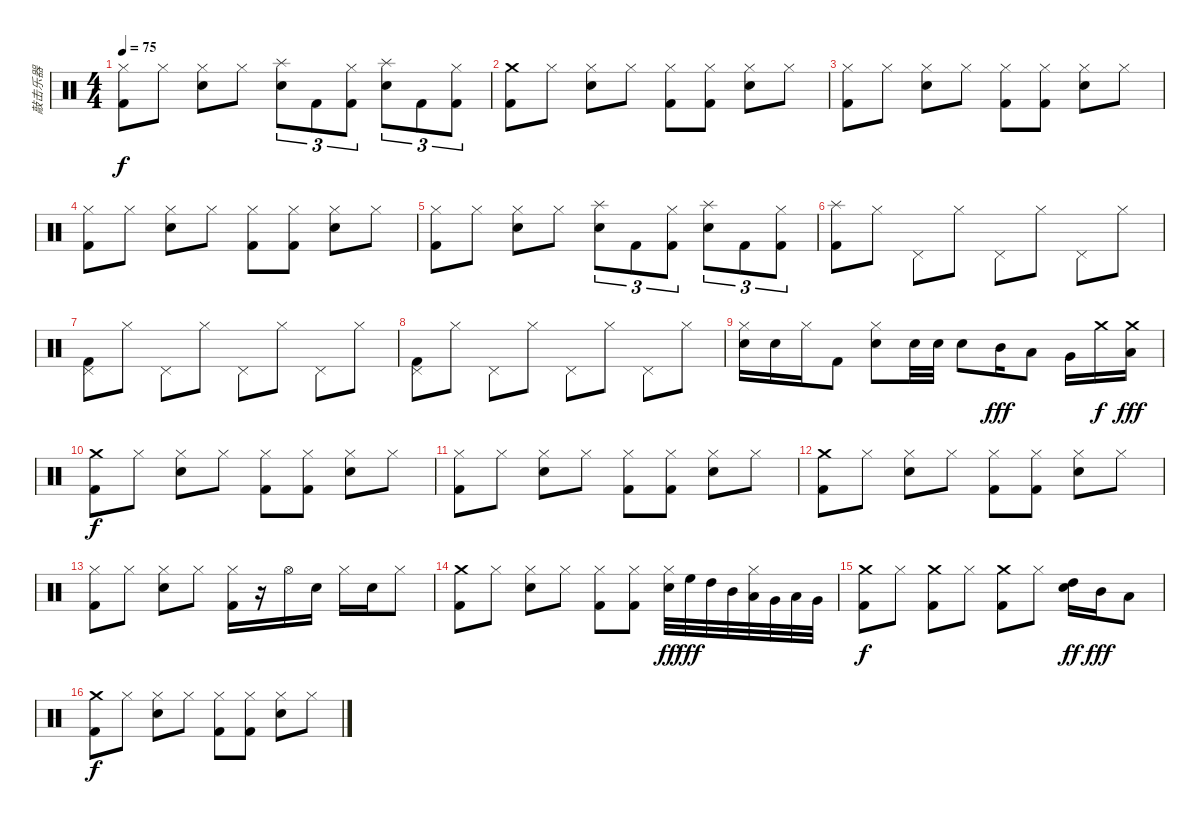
\track ("敲击乐器" "敲击乐器") {instrument percussion}
\staff {score}
\articulation defaults
\ts (4 4)
\tempo 75
\clef neutral
\ks c
("Hi-Hat (closed)" "Kick (hit) 2").8{dy f} "Hi-Hat (closed)".8 ("Hi-Hat (closed)" "Electric Snare (hit)").8 "Hi-Hat (closed)".8 ("Splash (hit)" "Electric Snare (hit)").8{tu (3 2)} "Kick (hit) 2".8{tu (3 2)} ("Hi-Hat (closed)" "Kick (hit) 2").8{tu (3 2)} ("Splash (hit)" "Electric Snare (hit)").8{tu (3 2)} "Kick (hit) 2".8{tu (3 2)} ("Hi-Hat (closed)" "Kick (hit) 2").8{tu (3 2)} |
("Crash medium (hit)" "Kick (hit) 2").8 "Hi-Hat (closed)".8 ("Hi-Hat (closed)" "Electric Snare (hit)").8 "Hi-Hat (closed)".8 ("Hi-Hat (closed)" "Kick (hit) 2").8 ("Hi-Hat (closed)" "Kick (hit) 2").8 ("Hi-Hat (closed)" "Electric Snare (hit)").8 "Hi-Hat (closed)".8 |
("Hi-Hat (closed)" "Kick (hit) 2").8 "Hi-Hat (closed)".8 ("Hi-Hat (closed)" "Electric Snare (hit)").8 "Hi-Hat (closed)".8 ("Hi-Hat (closed)" "Kick (hit) 2").8 ("Hi-Hat (closed)" "Kick (hit) 2").8 ("Hi-Hat (closed)" "Electric Snare (hit)").8 "Hi-Hat (closed)".8 |
("Hi-Hat (closed)" "Kick (hit) 2").8 "Hi-Hat (closed)".8 ("Hi-Hat (closed)" "Electric Snare (hit)").8 "Hi-Hat (closed)".8 ("Hi-Hat (closed)" "Kick (hit) 2").8 ("Hi-Hat (closed)" "Kick (hit) 2").8 ("Hi-Hat (closed)" "Electric Snare (hit)").8 "Hi-Hat (closed)".8 |
("Hi-Hat (closed)" "Kick (hit) 2").8 "Hi-Hat (closed)".8 ("Hi-Hat (closed)" "Electric Snare (hit)").8 "Hi-Hat (closed)".8 ("Splash (hit)" "Electric Snare (hit)").8{tu (3 2)} "Kick (hit) 2".8{tu (3 2)} ("Hi-Hat (closed)" "Kick (hit) 2").8{tu (3 2)} ("Splash (hit)" "Electric Snare (hit)").8{tu (3 2)} "Kick (hit) 2".8{tu (3 2)} ("Hi-Hat (closed)" "Kick (hit) 2").8{tu (3 2)} |
("Splash (hit)" "Kick (hit) 2").8 "Hi-Hat (closed)".8 "Pedal Hi-Hat (hit)".8 "Hi-Hat (closed)".8 "Pedal Hi-Hat (hit)".8 "Hi-Hat (closed)".8 "Pedal Hi-Hat (hit)".8 "Hi-Hat (closed)".8 |
("Pedal Hi-Hat (hit)" "Kick (hit) 2").8 "Hi-Hat (closed)".8 "Pedal Hi-Hat (hit)".8 "Hi-Hat (closed)".8 "Pedal Hi-Hat (hit)".8 "Hi-Hat (closed)".8 "Pedal Hi-Hat (hit)".8 "Hi-Hat (closed)".8 |
("Pedal Hi-Hat (hit)" "Kick (hit) 2").8 "Hi-Hat (closed)".8 "Pedal Hi-Hat (hit)".8 "Hi-Hat (closed)".8 "Pedal Hi-Hat (hit)".8 "Hi-Hat (closed)".8 "Pedal Hi-Hat (hit)".8 "Hi-Hat (closed)".8 |
("Hi-Hat (closed)" "Electric Snare (hit)").16 "Electric Snare (hit)".16 "Hi-Hat (closed)".16 "Kick (hit) 2".8 ("Hi-Hat (closed)" "Electric Snare (hit)").8 "Electric Snare (hit)".32 "Electric Snare (hit)".32 "Electric Snare (hit)".8 "Mid Tom (hit)".16{dy fff} "Low Tom (hit)".8 "Very Low Tom (hit)".16 "Crash medium (hit)".16{dy f} ("Crash medium (hit)" "Low Floor Tom (hit)").16{dy fff} |
("Crash medium (hit)" "Kick (hit) 2").8{dy f} "Hi-Hat (closed)".8 ("Hi-Hat (closed)" "Electric Snare (hit)").8 "Hi-Hat (closed)".8 ("Hi-Hat (closed)" "Kick (hit) 2").8 ("Hi-Hat (closed)" "Kick (hit) 2").8 ("Hi-Hat (closed)" "Electric Snare (hit)").8 "Hi-Hat (closed)".8 |
("Hi-Hat (closed)" "Kick (hit) 2").8 "Hi-Hat (closed)".8 ("Hi-Hat (closed)" "Electric Snare (hit)").8 "Hi-Hat (closed)".8 ("Hi-Hat (closed)" "Kick (hit) 2").8 ("Hi-Hat (closed)" "Kick (hit) 2").8 ("Hi-Hat (closed)" "Electric Snare (hit)").8 "Hi-Hat (closed)".8 |
("Crash medium (hit)" "Kick (hit) 2").8 "Hi-Hat (closed)".8 ("Hi-Hat (closed)" "Electric Snare (hit)").8 "Hi-Hat (closed)".8 ("Hi-Hat (closed)" "Kick (hit) 2").8 ("Hi-Hat (closed)" "Kick (hit) 2").8 ("Hi-Hat (closed)" "Electric Snare (hit)").8 "Hi-Hat (closed)".8 |
("Hi-Hat (closed)" "Kick (hit) 2").8 "Hi-Hat (closed)".8 ("Hi-Hat (closed)" "Electric Snare (hit)").8 "Hi-Hat (closed)".8 ("Hi-Hat (closed)" "Kick (hit) 2").16 r.16 "Hi-Hat (open)".16 "Electric Snare (hit)".16 "Hi-Hat (closed)".16 "Electric Snare (hit)".16 "Hi-Hat (closed)".8 |
("Crash medium (hit)" "Kick (hit) 2").8 "Hi-Hat (closed)".8 ("Hi-Hat (closed)" "Electric Snare (hit)").8 "Hi-Hat (closed)".8 ("Hi-Hat (closed)" "Kick (hit) 2").8 ("Hi-Hat (closed)" "Kick (hit) 2").8 ("Hi-Hat (closed)" "Electric Snare (hit)").32{dy ff} "High Floor Tom (hit)".32{dy fff} "High Tom (hit)".32 "Mid Tom (hit)".32 ("Hi-Hat (closed)" "Low Tom (hit)").32 "Very Low Tom (hit)".32 "Low Floor Tom (hit)".32 "Very Low Tom (hit)".32 |
("Crash medium (hit)" "Kick (hit) 2").8{dy f} "Hi-Hat (closed)".8 ("Crash medium (hit)" "Kick (hit) 2").8 "Hi-Hat (closed)".8 ("Crash medium (hit)" "Kick (hit) 2").8 "Hi-Hat (closed)".8 ("High Tom (hit)" "Electric Snare (hit)").16{dy ff} "Mid Tom (hit)".16{dy fff} "Low Tom (hit)".8 |
("Crash medium (hit)" "Kick (hit) 2").8{dy f} "Hi-Hat (closed)".8 ("Hi-Hat (closed)" "Electric Snare (hit)").8 "Hi-Hat (closed)".8 ("Hi-Hat (closed)" "Kick (hit) 2").8 ("Hi-Hat (closed)" "Kick (hit) 2").8 ("Hi-Hat (closed)" "Electric Snare (hit)").8 "Hi-Hat (closed)".8
